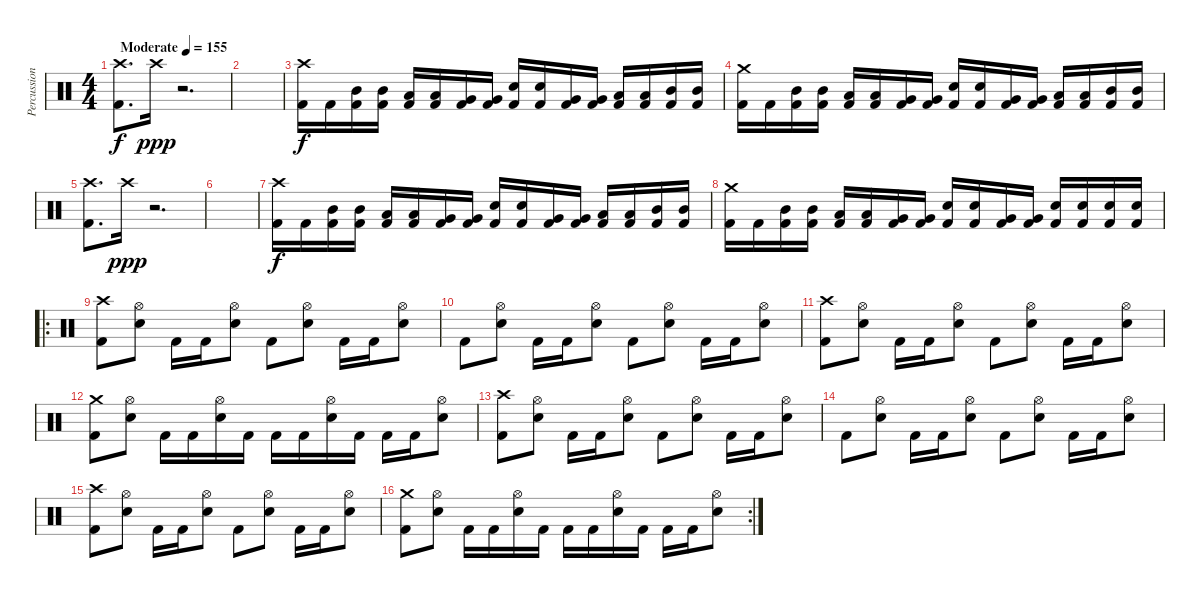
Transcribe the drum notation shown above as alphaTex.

\track ("Percussion" "Percussion") {instrument percussion}
\staff {score}
\articulation defaults
\ts (4 4)
\tempo (155 "Moderate")
\clef neutral
\ks c
("Crash high (hit)" "Kick (hit) 2").8{d dy f} "Crash high (hit)".16{dy ppp} r.2{d} |
|
("Crash high (hit)" "Kick (hit) 2").16{dy f} "Kick (hit) 2".16 ("Mid Tom (hit)" "Kick (hit) 2").16 ("Mid Tom (hit)" "Kick (hit) 2").16 ("Low Tom (hit)" "Kick (hit) 2").16 ("Low Tom (hit)" "Kick (hit) 2").16 ("Very Low Tom (hit)" "Kick (hit) 2").16 ("Very Low Tom (hit)" "Kick (hit) 2").16 ("Snare (hit) 2" "Kick (hit) 2").16 ("Snare (hit) 2" "Kick (hit) 2").16 ("Very Low Tom (hit)" "Kick (hit) 2").16 ("Very Low Tom (hit)" "Kick (hit) 2").16 ("Low Tom (hit)" "Kick (hit) 2").16 ("Low Tom (hit)" "Kick (hit) 2").16 ("Mid Tom (hit)" "Kick (hit) 2").16 ("Mid Tom (hit)" "Kick (hit) 2").16 |
("Crash medium (hit)" "Kick (hit) 2").16 "Kick (hit) 2".16 ("Mid Tom (hit)" "Kick (hit) 2").16 ("Mid Tom (hit)" "Kick (hit) 2").16 ("Low Tom (hit)" "Kick (hit) 2").16 ("Low Tom (hit)" "Kick (hit) 2").16 ("Very Low Tom (hit)" "Kick (hit) 2").16 ("Very Low Tom (hit)" "Kick (hit) 2").16 ("Snare (hit) 2" "Kick (hit) 2").16 ("Snare (hit) 2" "Kick (hit) 2").16 ("Very Low Tom (hit)" "Kick (hit) 2").16 ("Very Low Tom (hit)" "Kick (hit) 2").16 ("Low Tom (hit)" "Kick (hit) 2").16 ("Low Tom (hit)" "Kick (hit) 2").16 ("Mid Tom (hit)" "Kick (hit) 2").16 ("Mid Tom (hit)" "Kick (hit) 2").16 |
("Crash high (hit)" "Kick (hit) 2").8{d} "Crash high (hit)".16{dy ppp} r.2{d} |
|
("Crash high (hit)" "Kick (hit) 2").16{dy f} "Kick (hit) 2".16 ("Mid Tom (hit)" "Kick (hit) 2").16 ("Mid Tom (hit)" "Kick (hit) 2").16 ("Low Tom (hit)" "Kick (hit) 2").16 ("Low Tom (hit)" "Kick (hit) 2").16 ("Very Low Tom (hit)" "Kick (hit) 2").16 ("Very Low Tom (hit)" "Kick (hit) 2").16 ("Snare (hit) 2" "Kick (hit) 2").16 ("Snare (hit) 2" "Kick (hit) 2").16 ("Very Low Tom (hit)" "Kick (hit) 2").16 ("Very Low Tom (hit)" "Kick (hit) 2").16 ("Low Tom (hit)" "Kick (hit) 2").16 ("Low Tom (hit)" "Kick (hit) 2").16 ("Mid Tom (hit)" "Kick (hit) 2").16 ("Mid Tom (hit)" "Kick (hit) 2").16 |
("Crash medium (hit)" "Kick (hit) 2").16 "Kick (hit) 2".16 ("Mid Tom (hit)" "Kick (hit) 2").16 ("Mid Tom (hit)" "Kick (hit) 2").16 ("Low Tom (hit)" "Kick (hit) 2").16 ("Low Tom (hit)" "Kick (hit) 2").16 ("Very Low Tom (hit)" "Kick (hit) 2").16 ("Very Low Tom (hit)" "Kick (hit) 2").16 ("Snare (hit) 2" "Kick (hit) 2").16 ("Snare (hit) 2" "Kick (hit) 2").16 ("Very Low Tom (hit)" "Kick (hit) 2").16 ("Very Low Tom (hit)" "Kick (hit) 2").16 ("Snare (hit) 2" "Kick (hit) 2").16 ("Snare (hit) 2" "Kick (hit) 2").16 ("Snare (hit) 2" "Kick (hit) 2").16 ("Snare (hit) 2" "Kick (hit) 2").16 |
\ro
("Crash high (hit)" "Kick (hit) 2").8 ("Hi-Hat (open)" "Snare (hit) 2").8 "Kick (hit) 2".16 "Kick (hit) 2".16 ("Hi-Hat (open)" "Snare (hit) 2").8 "Kick (hit) 2".8 ("Hi-Hat (open)" "Snare (hit) 2").8 "Kick (hit) 2".16 "Kick (hit) 2".16 ("Hi-Hat (open)" "Snare (hit) 2").8 |
"Kick (hit) 2".8 ("Hi-Hat (open)" "Snare (hit) 2").8 "Kick (hit) 2".16 "Kick (hit) 2".16 ("Hi-Hat (open)" "Snare (hit) 2").8 "Kick (hit) 2".8 ("Hi-Hat (open)" "Snare (hit) 2").8 "Kick (hit) 2".16 "Kick (hit) 2".16 ("Hi-Hat (open)" "Snare (hit) 2").8 |
("Crash high (hit)" "Kick (hit) 2").8 ("Hi-Hat (open)" "Snare (hit) 2").8 "Kick (hit) 2".16 "Kick (hit) 2".16 ("Hi-Hat (open)" "Snare (hit) 2").8 "Kick (hit) 2".8 ("Hi-Hat (open)" "Snare (hit) 2").8 "Kick (hit) 2".16 "Kick (hit) 2".16 ("Hi-Hat (open)" "Snare (hit) 2").8 |
("Crash medium (hit)" "Kick (hit) 2").8 ("Hi-Hat (open)" "Snare (hit) 2").8 "Kick (hit) 2".16 "Kick (hit) 2".16 ("Hi-Hat (open)" "Snare (hit) 2").16 "Kick (hit) 2".16 "Kick (hit) 2".16 "Kick (hit) 2".16 ("Hi-Hat (open)" "Snare (hit) 2").16 "Kick (hit) 2".16 "Kick (hit) 2".16 "Kick (hit) 2".16 ("Hi-Hat (open)" "Snare (hit) 2").8 |
("Crash high (hit)" "Kick (hit) 2").8 ("Hi-Hat (open)" "Snare (hit) 2").8 "Kick (hit) 2".16 "Kick (hit) 2".16 ("Hi-Hat (open)" "Snare (hit) 2").8 "Kick (hit) 2".8 ("Hi-Hat (open)" "Snare (hit) 2").8 "Kick (hit) 2".16 "Kick (hit) 2".16 ("Hi-Hat (open)" "Snare (hit) 2").8 |
"Kick (hit) 2".8 ("Hi-Hat (open)" "Snare (hit) 2").8 "Kick (hit) 2".16 "Kick (hit) 2".16 ("Hi-Hat (open)" "Snare (hit) 2").8 "Kick (hit) 2".8 ("Hi-Hat (open)" "Snare (hit) 2").8 "Kick (hit) 2".16 "Kick (hit) 2".16 ("Hi-Hat (open)" "Snare (hit) 2").8 |
("Crash high (hit)" "Kick (hit) 2").8 ("Hi-Hat (open)" "Snare (hit) 2").8 "Kick (hit) 2".16 "Kick (hit) 2".16 ("Hi-Hat (open)" "Snare (hit) 2").8 "Kick (hit) 2".8 ("Hi-Hat (open)" "Snare (hit) 2").8 "Kick (hit) 2".16 "Kick (hit) 2".16 ("Hi-Hat (open)" "Snare (hit) 2").8 |
\rc 2
("Crash medium (hit)" "Kick (hit) 2").8 ("Hi-Hat (open)" "Snare (hit) 2").8 "Kick (hit) 2".16 "Kick (hit) 2".16 ("Hi-Hat (open)" "Snare (hit) 2").16 "Kick (hit) 2".16 "Kick (hit) 2".16 "Kick (hit) 2".16 ("Hi-Hat (open)" "Snare (hit) 2").16 "Kick (hit) 2".16 "Kick (hit) 2".16 "Kick (hit) 2".16 ("Hi-Hat (open)" "Snare (hit) 2").8
